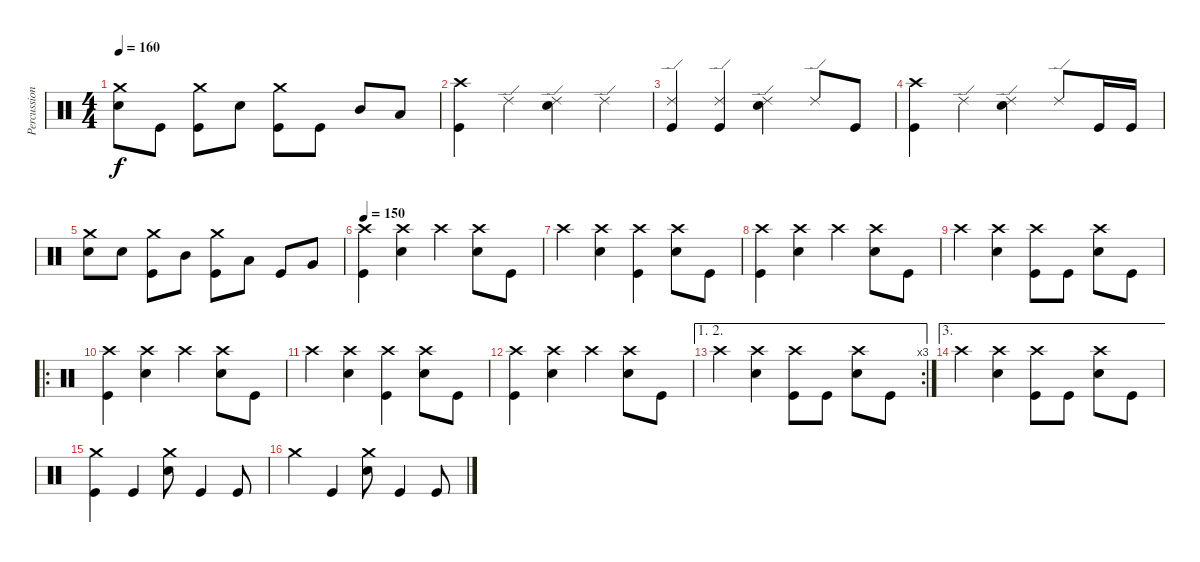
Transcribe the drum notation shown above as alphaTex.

\track ("Percussion" "Percussion") {instrument percussion}
\staff {score}
\articulation defaults
\ts (4 4)
\tempo 160
\clef neutral
\ks c
("Crash medium (hit)" "Electric Snare (hit)").8{dy f} "Kick (hit)".8 ("Crash medium (hit)" "Kick (hit)").8 "Electric Snare (hit)".8 ("Crash medium (hit)" "Kick (hit)").8 "Kick (hit)".8 "Mid Tom (hit)".8 "Low Tom (hit)".8 |
("Crash high (hit)" "Kick (hit)").4 "Ride (edge) 2".4 ("Ride (edge) 2" "Electric Snare (hit)").4 "Ride (edge) 2".4 |
("Ride (edge) 2" "Kick (hit)").4 ("Ride (edge) 2" "Kick (hit)").4 ("Ride (edge) 2" "Electric Snare (hit)").4 "Ride (edge) 2".8 "Kick (hit)".8 |
("Crash high (hit)" "Kick (hit)").4 "Ride (edge) 2".4 ("Ride (edge) 2" "Electric Snare (hit)").4 "Ride (edge) 2".8 "Kick (hit)".16 "Kick (hit)".16 |
("Crash medium (hit)" "Electric Snare (hit)").8 "Electric Snare (hit)".8 ("Crash medium (hit)" "Kick (hit)").8 "Mid Tom (hit)".8 ("Crash medium (hit)" "Kick (hit)").8 "Low Tom (hit)".8 "Kick (hit)".8 "Very Low Tom (hit)".8 |
\tempo 150
("Crash high (hit)" "Kick (hit)").4 ("Crash high (hit)" "Electric Snare (hit)").4 "Crash high (hit)".4 ("Crash high (hit)" "Electric Snare (hit)").8 "Kick (hit)".8 |
"Crash high (hit)".4 ("Crash high (hit)" "Electric Snare (hit)").4 ("Crash high (hit)" "Kick (hit)").4 ("Crash high (hit)" "Electric Snare (hit)").8 "Kick (hit)".8 |
("Crash high (hit)" "Kick (hit)").4 ("Crash high (hit)" "Electric Snare (hit)").4 "Crash high (hit)".4 ("Crash high (hit)" "Electric Snare (hit)").8 "Kick (hit)".8 |
"Crash high (hit)".4 ("Crash high (hit)" "Electric Snare (hit)").4 ("Crash high (hit)" "Kick (hit)").8 "Kick (hit)".8 ("Crash high (hit)" "Electric Snare (hit)").8 "Kick (hit)".8 |
\ro
("Crash high (hit)" "Kick (hit)").4 ("Crash high (hit)" "Electric Snare (hit)").4 "Crash high (hit)".4 ("Crash high (hit)" "Electric Snare (hit)").8 "Kick (hit)".8 |
"Crash high (hit)".4 ("Crash high (hit)" "Electric Snare (hit)").4 ("Crash high (hit)" "Kick (hit)").4 ("Crash high (hit)" "Electric Snare (hit)").8 "Kick (hit)".8 |
("Crash high (hit)" "Kick (hit)").4 ("Crash high (hit)" "Electric Snare (hit)").4 "Crash high (hit)".4 ("Crash high (hit)" "Electric Snare (hit)").8 "Kick (hit)".8 |
\ae (1 2)
\rc 3 "Crash high (hit)".4
("Crash high (hit)" "Electric Snare (hit)").4 ("Crash high (hit)" "Kick (hit)").8 "Kick (hit)".8 ("Crash high (hit)" "Electric Snare (hit)").8 "Kick (hit)".8 |
\ae 3 "Crash high (hit)".4
("Crash high (hit)" "Electric Snare (hit)").4 ("Crash high (hit)" "Kick (hit)").8 "Kick (hit)".8 ("Crash high (hit)" "Electric Snare (hit)").8 "Kick (hit)".8 |
("Crash medium (hit)" "Kick (hit)").4 "Kick (hit)".4 ("Crash medium (hit)" "Electric Snare (hit)").8 "Kick (hit)".4 "Kick (hit)".8 |
"Crash medium (hit)".4 "Kick (hit)".4 ("Crash medium (hit)" "Electric Snare (hit)").8 "Kick (hit)".4 "Kick (hit)".8
